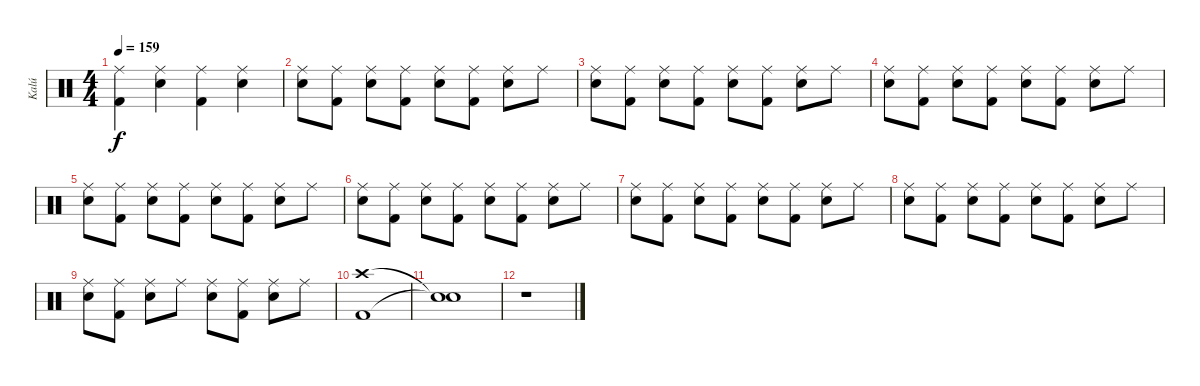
\track ("Kalú" "Kalú") {instrument percussion}
\staff {score}
\articulation defaults
\ts (4 4)
\tempo 159
\clef neutral
\ks c
("Ride (middle)" "Kick (hit) 2").4{dy f} ("Ride (middle)" "Electric Snare (hit)").4 ("Ride (middle)" "Kick (hit) 2").4 ("Ride (middle)" "Electric Snare (hit)").4 |
("Ride (middle)" "Electric Snare (hit)").8 ("Ride (middle)" "Kick (hit) 2").8 ("Ride (middle)" "Electric Snare (hit)").8 ("Ride (middle)" "Kick (hit) 2").8 ("Ride (middle)" "Electric Snare (hit)").8 ("Ride (middle)" "Kick (hit) 2").8 ("Ride (middle)" "Electric Snare (hit)").8 "Ride (middle)".8 |
("Ride (middle)" "Electric Snare (hit)").8 ("Ride (middle)" "Kick (hit) 2").8 ("Ride (middle)" "Electric Snare (hit)").8 ("Ride (middle)" "Kick (hit) 2").8 ("Ride (middle)" "Electric Snare (hit)").8 ("Ride (middle)" "Kick (hit) 2").8 ("Ride (middle)" "Electric Snare (hit)").8 "Ride (middle)".8 |
("Ride (middle)" "Electric Snare (hit)").8 ("Ride (middle)" "Kick (hit) 2").8 ("Ride (middle)" "Electric Snare (hit)").8 ("Ride (middle)" "Kick (hit) 2").8 ("Ride (middle)" "Electric Snare (hit)").8 ("Ride (middle)" "Kick (hit) 2").8 ("Ride (middle)" "Electric Snare (hit)").8 "Ride (middle)".8 |
("Ride (middle)" "Electric Snare (hit)").8 ("Ride (middle)" "Kick (hit) 2").8 ("Ride (middle)" "Electric Snare (hit)").8 ("Ride (middle)" "Kick (hit) 2").8 ("Ride (middle)" "Electric Snare (hit)").8 ("Ride (middle)" "Kick (hit) 2").8 ("Ride (middle)" "Electric Snare (hit)").8 "Ride (middle)".8 |
("Ride (middle)" "Electric Snare (hit)").8 ("Ride (middle)" "Kick (hit) 2").8 ("Ride (middle)" "Electric Snare (hit)").8 ("Ride (middle)" "Kick (hit) 2").8 ("Ride (middle)" "Electric Snare (hit)").8 ("Ride (middle)" "Kick (hit) 2").8 ("Ride (middle)" "Electric Snare (hit)").8 "Ride (middle)".8 |
("Ride (middle)" "Electric Snare (hit)").8 ("Ride (middle)" "Kick (hit) 2").8 ("Ride (middle)" "Electric Snare (hit)").8 ("Ride (middle)" "Kick (hit) 2").8 ("Ride (middle)" "Electric Snare (hit)").8 ("Ride (middle)" "Kick (hit) 2").8 ("Ride (middle)" "Electric Snare (hit)").8 "Ride (middle)".8 |
("Ride (middle)" "Electric Snare (hit)").8 ("Ride (middle)" "Kick (hit) 2").8 ("Ride (middle)" "Electric Snare (hit)").8 ("Ride (middle)" "Kick (hit) 2").8 ("Ride (middle)" "Electric Snare (hit)").8 ("Ride (middle)" "Kick (hit) 2").8 ("Ride (middle)" "Electric Snare (hit)").8 "Ride (middle)".8 |
("Ride (middle)" "Electric Snare (hit)").8 ("Ride (middle)" "Kick (hit) 2").8 ("Ride (middle)" "Electric Snare (hit)").8 "Ride (middle)".8 ("Ride (middle)" "Electric Snare (hit)").8 ("Ride (middle)" "Kick (hit) 2").8 ("Ride (middle)" "Electric Snare (hit)").8 "Ride (middle)".8 |
("Crash high (hit)" "Kick (hit) 2").1 |
("Snare (hit)"{t} "Snare (hit)"{t}).1 |
r.1
